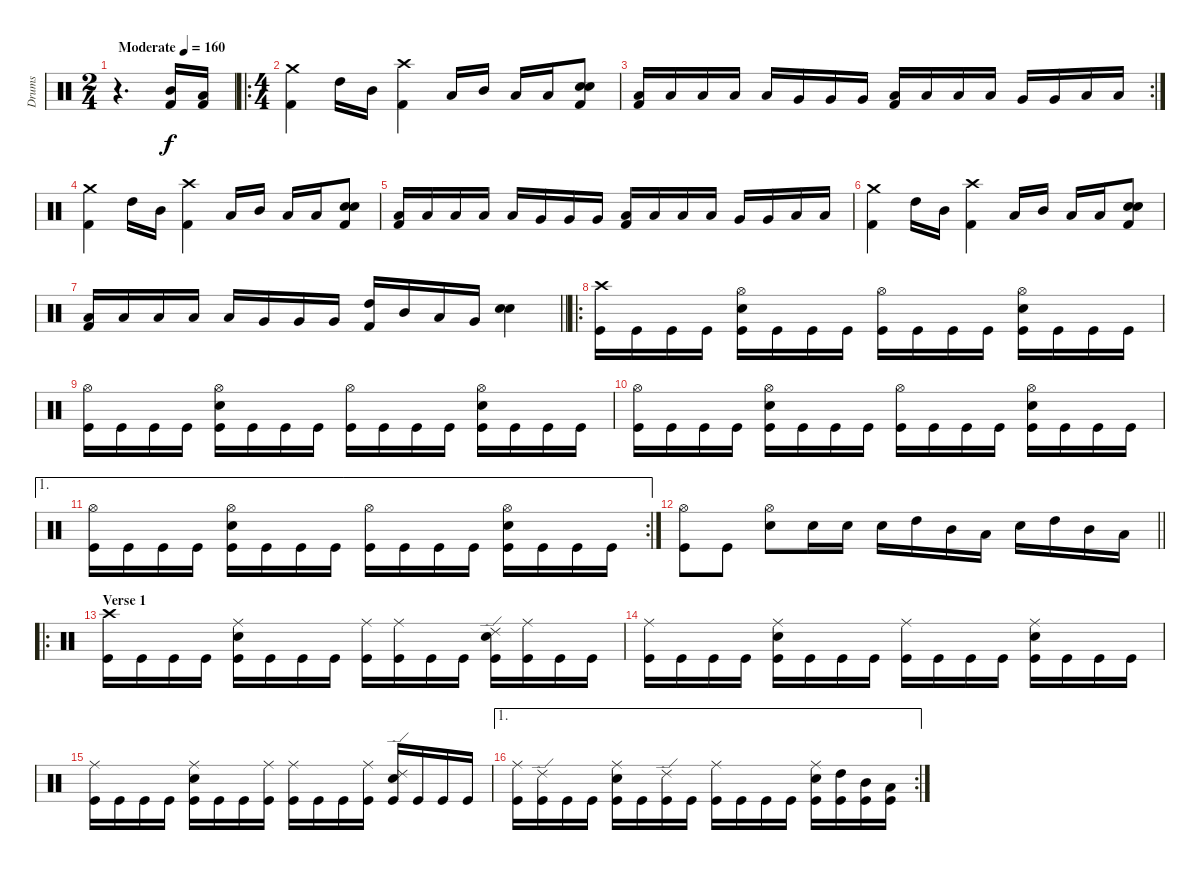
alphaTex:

\track ("Drums" "Drums") {instrument percussion}
\staff {score}
\articulation defaults
\ts (2 4)
\tempo (160 "Moderate")
\clef neutral
\ks c
r.4{d dy f} ("Mid Tom (hit)" "Kick (hit) 2").16 ("Low Tom (hit)" "Kick (hit) 2").16 |
\ro
\ts (4 4)
("Crash medium (hit)" "Kick (hit) 2").4 "High Tom (hit)".16 "Mid Tom (hit)".16 ("Crash high (hit)" "Kick (hit) 2").4 "Low Tom (hit)".16 "Mid Tom (hit)".16 "Low Tom (hit)".16 "Low Tom (hit)".16 ("Electric Snare (hit)" "Electric Snare (hit)" "Kick (hit) 2").8{bd 120} |
\rc 2
("Low Tom (hit)" "Kick (hit) 2").16 "Low Tom (hit)".16 "Low Tom (hit)".16 "Low Tom (hit)".16 "Low Tom (hit)".16 "Very Low Tom (hit)".16 "Very Low Tom (hit)".16 "Very Low Tom (hit)".16 ("Low Tom (hit)" "Kick (hit) 2").16 "Low Tom (hit)".16 "Low Tom (hit)".16 "Low Tom (hit)".16 "Very Low Tom (hit)".16 "Very Low Tom (hit)".16 "Low Floor Tom (hit)".16 "Low Floor Tom (hit)".16 |
("Crash medium (hit)" "Kick (hit) 2").4 "High Tom (hit)".16 "Mid Tom (hit)".16 ("Crash high (hit)" "Kick (hit) 2").4 "Low Tom (hit)".16 "Mid Tom (hit)".16 "Low Tom (hit)".16 "Low Tom (hit)".16 ("Electric Snare (hit)" "Electric Snare (hit)" "Kick (hit) 2").8{bd 120} |
("Low Tom (hit)" "Kick (hit) 2").16 "Low Tom (hit)".16 "Low Tom (hit)".16 "Low Tom (hit)".16 "Low Tom (hit)".16 "Very Low Tom (hit)".16 "Very Low Tom (hit)".16 "Very Low Tom (hit)".16 ("Low Tom (hit)" "Kick (hit) 2").16 "Low Tom (hit)".16 "Low Tom (hit)".16 "Low Tom (hit)".16 "Very Low Tom (hit)".16 "Very Low Tom (hit)".16 "Low Floor Tom (hit)".16 "Low Floor Tom (hit)".16 |
("Crash medium (hit)" "Kick (hit) 2").4 "High Tom (hit)".16 "Mid Tom (hit)".16 ("Crash high (hit)" "Kick (hit) 2").4 "Low Tom (hit)".16 "Mid Tom (hit)".16 "Low Tom (hit)".16 "Low Tom (hit)".16 ("Electric Snare (hit)" "Electric Snare (hit)" "Kick (hit) 2").8{bd 120} |
\barLineRight lightlight
("Low Tom (hit)" "Kick (hit) 2").16 "Low Tom (hit)".16 "Low Tom (hit)".16 "Low Tom (hit)".16 "Low Tom (hit)".16 "Very Low Tom (hit)".16 "Very Low Tom (hit)".16 "Very Low Tom (hit)".16 ("High Tom (hit)" "Kick (hit) 2").16 "Mid Tom (hit)".16 "Low Tom (hit)".16 "Very Low Tom (hit)".16 ("Electric Snare (hit)" "Electric Snare (hit)").4{bd 240} |
\ro
\section ("" "")
("Crash high (hit)" "Kick (hit)").16 "Kick (hit)".16 "Kick (hit)".16 "Kick (hit)".16 ("Hi-Hat (open)" "Electric Snare (hit)" "Kick (hit)").16 "Kick (hit)".16 "Kick (hit)".16 "Kick (hit)".16 ("Hi-Hat (open)" "Kick (hit)").16 "Kick (hit)".16 "Kick (hit)".16 "Kick (hit)".16 ("Hi-Hat (open)" "Electric Snare (hit)" "Kick (hit)").16 "Kick (hit)".16 "Kick (hit)".16 "Kick (hit)".16 |
("Hi-Hat (open)" "Kick (hit)").16 "Kick (hit)".16 "Kick (hit)".16 "Kick (hit)".16 ("Hi-Hat (open)" "Electric Snare (hit)" "Kick (hit)").16 "Kick (hit)".16 "Kick (hit)".16 "Kick (hit)".16 ("Hi-Hat (open)" "Kick (hit)").16 "Kick (hit)".16 "Kick (hit)".16 "Kick (hit)".16 ("Hi-Hat (open)" "Electric Snare (hit)" "Kick (hit)").16 "Kick (hit)".16 "Kick (hit)".16 "Kick (hit)".16 |
("Hi-Hat (open)" "Kick (hit)").16 "Kick (hit)".16 "Kick (hit)".16 "Kick (hit)".16 ("Hi-Hat (open)" "Electric Snare (hit)" "Kick (hit)").16 "Kick (hit)".16 "Kick (hit)".16 "Kick (hit)".16 ("Hi-Hat (open)" "Kick (hit)").16 "Kick (hit)".16 "Kick (hit)".16 "Kick (hit)".16 ("Hi-Hat (open)" "Electric Snare (hit)" "Kick (hit)").16 "Kick (hit)".16 "Kick (hit)".16 "Kick (hit)".16 |
\ae 1
\rc 2
("Hi-Hat (open)" "Kick (hit)").16 "Kick (hit)".16 "Kick (hit)".16 "Kick (hit)".16 ("Hi-Hat (open)" "Electric Snare (hit)" "Kick (hit)").16 "Kick (hit)".16 "Kick (hit)".16 "Kick (hit)".16 ("Hi-Hat (open)" "Kick (hit)").16 "Kick (hit)".16 "Kick (hit)".16 "Kick (hit)".16 ("Hi-Hat (open)" "Electric Snare (hit)" "Kick (hit)").16 "Kick (hit)".16 "Kick (hit)".16 "Kick (hit)".16 |
\barLineRight lightlight
("Hi-Hat (open)" "Kick (hit)").8 "Kick (hit)".8 ("Hi-Hat (open)" "Electric Snare (hit)").8 "Electric Snare (hit)".16 "Electric Snare (hit)".16 "Electric Snare (hit)".16 "High Tom (hit)".16 "Mid Tom (hit)".16 "Low Tom (hit)".16 "Electric Snare (hit)".16 "High Tom (hit)".16 "Mid Tom (hit)".16 "Low Tom (hit)".16 |
\ro
\section ("" "Verse 1")
("Crash high (hit)" "Kick (hit)").16 "Kick (hit)".16 "Kick (hit)".16 "Kick (hit)".16 ("Ride (middle)" "Electric Snare (hit)" "Kick (hit)").16 "Kick (hit)".16 "Kick (hit)".16 "Kick (hit)".16 ("Ride (middle)" "Kick (hit)").16 ("Ride (middle)" "Kick (hit)").16 "Kick (hit)".16 "Kick (hit)".16 ("Ride (edge) 2" "Electric Snare (hit)" "Kick (hit)").16 ("Ride (middle)" "Kick (hit)").16 "Kick (hit)".16 "Kick (hit)".16 |
("Ride (middle)" "Kick (hit)").16 "Kick (hit)".16 "Kick (hit)".16 "Kick (hit)".16 ("Ride (middle)" "Electric Snare (hit)" "Kick (hit)").16 "Kick (hit)".16 "Kick (hit)".16 "Kick (hit)".16 ("Ride (middle)" "Kick (hit)").16 "Kick (hit)".16 "Kick (hit)".16 "Kick (hit)".16 ("Ride (middle)" "Electric Snare (hit)" "Kick (hit)").16 "Kick (hit)".16 "Kick (hit)".16 "Kick (hit)".16 |
("Ride (middle)" "Kick (hit)").16 "Kick (hit)".16 "Kick (hit)".16 "Kick (hit)".16 ("Ride (middle)" "Electric Snare (hit)" "Kick (hit)").16 "Kick (hit)".16 "Kick (hit)".16 ("Ride (middle)" "Kick (hit)").16 ("Ride (middle)" "Kick (hit)").16 "Kick (hit)".16 "Kick (hit)".16 ("Ride (middle)" "Kick (hit)").16 ("Ride (edge) 2" "Electric Snare (hit)" "Kick (hit)").16 "Kick (hit)".16 "Kick (hit)".16 "Kick (hit)".16 |
\ae 1
\rc 2
("Ride (middle)" "Kick (hit)").16 ("Ride (edge) 2" "Kick (hit)").16 "Kick (hit)".16 "Kick (hit)".16 ("Ride (middle)" "Electric Snare (hit)" "Kick (hit)").16 "Kick (hit)".16 ("Ride (edge) 2" "Kick (hit)").16 "Kick (hit)".16 ("Ride (middle)" "Kick (hit)").16 "Kick (hit)".16 "Kick (hit)".16 "Kick (hit)".16 ("Ride (middle)" "Electric Snare (hit)" "Kick (hit)").16 ("High Tom (hit)" "Kick (hit)").16 ("Mid Tom (hit)" "Kick (hit)").16 ("Low Tom (hit)" "Kick (hit)").16
